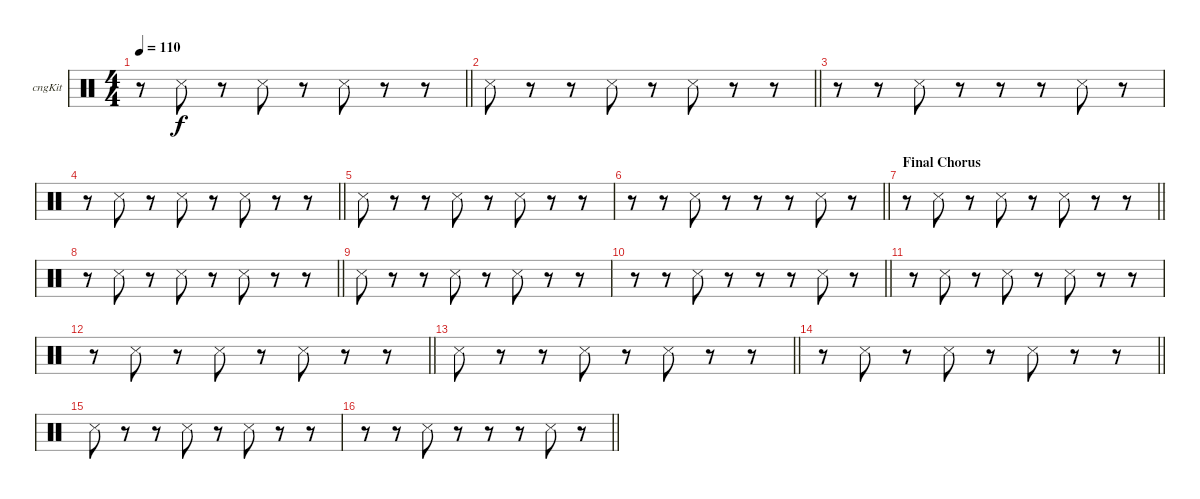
\bracketExtendMode groupsimilarinstruments
\firstSystemTrackNameOrientation horizontal
\otherSystemsTrackNameOrientation horizontal
\track ("Congas" "cngKit") {instrument percussion}
\staff {score}
\articulation defaults
\ts (4 4)
\tempo 110
\clef neutral
\barLineRight lightlight
\ks c
r.8{dy f} "Snare (side stick) 3".8 r.8 "Snare (side stick) 3".8 r.8 "Snare (side stick) 3".8 r.8 r.8 |
\barLineRight lightlight "Snare (side stick) 3".8
r.8 r.8 "Snare (side stick) 3".8 r.8 "Snare (side stick) 3".8 r.8 r.8 |
r.8 r.8 "Snare (side stick) 3".8 r.8 r.8 r.8 "Snare (side stick) 3".8 r.8 |
\barLineRight lightlight
r.8 "Snare (side stick) 3".8 r.8 "Snare (side stick) 3".8 r.8 "Snare (side stick) 3".8 r.8 r.8 |
"Snare (side stick) 3".8 r.8 r.8 "Snare (side stick) 3".8 r.8 "Snare (side stick) 3".8 r.8 r.8 |
\barLineRight lightlight
r.8 r.8 "Snare (side stick) 3".8 r.8 r.8 r.8 "Snare (side stick) 3".8 r.8 |
\section ("" "Final Chorus")
\barLineRight lightlight
r.8 "Snare (side stick) 3".8 r.8 "Snare (side stick) 3".8 r.8 "Snare (side stick) 3".8 r.8 r.8 |
\barLineRight lightlight
r.8 "Snare (side stick) 3".8 r.8 "Snare (side stick) 3".8 r.8 "Snare (side stick) 3".8 r.8 r.8 |
"Snare (side stick) 3".8 r.8 r.8 "Snare (side stick) 3".8 r.8 "Snare (side stick) 3".8 r.8 r.8 |
\barLineRight lightlight
r.8 r.8 "Snare (side stick) 3".8 r.8 r.8 r.8 "Snare (side stick) 3".8 r.8 |
r.8 "Snare (side stick) 3".8 r.8 "Snare (side stick) 3".8 r.8 "Snare (side stick) 3".8 r.8 r.8 |
\barLineRight lightlight
r.8 "Snare (side stick) 3".8 r.8 "Snare (side stick) 3".8 r.8 "Snare (side stick) 3".8 r.8 r.8 |
\barLineRight lightlight "Snare (side stick) 3".8
r.8 r.8 "Snare (side stick) 3".8 r.8 "Snare (side stick) 3".8 r.8 r.8 |
\barLineRight lightlight
r.8 "Snare (side stick) 3".8 r.8 "Snare (side stick) 3".8 r.8 "Snare (side stick) 3".8 r.8 r.8 |
"Snare (side stick) 3".8 r.8 r.8 "Snare (side stick) 3".8 r.8 "Snare (side stick) 3".8 r.8 r.8 |
\barLineRight lightlight
r.8 r.8 "Snare (side stick) 3".8 r.8 r.8 r.8 "Snare (side stick) 3".8 r.8
